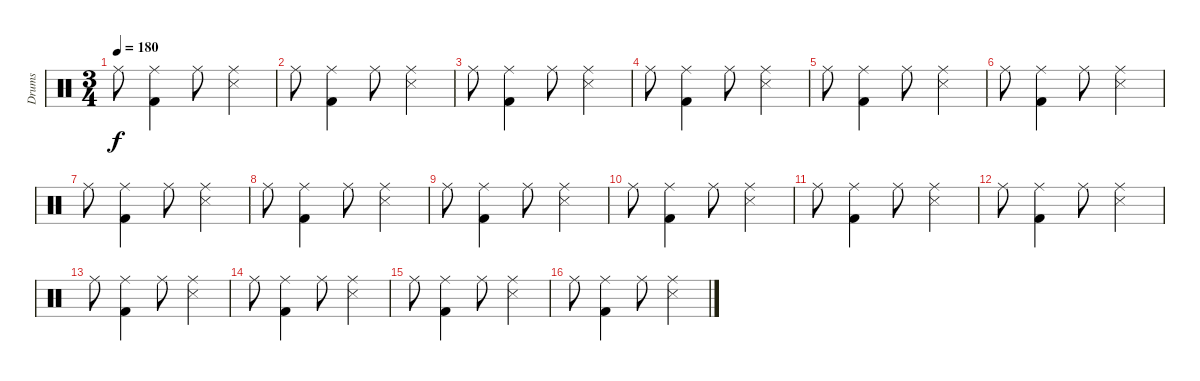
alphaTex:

\track ("Drums" "Drums") {instrument percussion}
\staff {score}
\articulation defaults
\ts (3 4)
\tempo 180
\clef neutral
\ks c "Ride (middle)".8{dy f}
("Ride (middle)" "Kick (hit) 2").4 "Ride (middle)".8 ("Ride (middle)" "Snare (side stick) 3").4 |
"Ride (middle)".8 ("Ride (middle)" "Kick (hit) 2").4 "Ride (middle)".8 ("Ride (middle)" "Snare (side stick) 3").4 |
"Ride (middle)".8 ("Ride (middle)" "Kick (hit) 2").4 "Ride (middle)".8 ("Ride (middle)" "Snare (side stick) 3").4 |
"Ride (middle)".8 ("Ride (middle)" "Kick (hit) 2").4 "Ride (middle)".8 ("Ride (middle)" "Snare (side stick) 3").4 |
"Ride (middle)".8 ("Ride (middle)" "Kick (hit) 2").4 "Ride (middle)".8 ("Ride (middle)" "Snare (side stick) 3").4 |
"Ride (middle)".8 ("Ride (middle)" "Kick (hit) 2").4 "Ride (middle)".8 ("Ride (middle)" "Snare (side stick) 3").4 |
"Ride (middle)".8 ("Ride (middle)" "Kick (hit) 2").4 "Ride (middle)".8 ("Ride (middle)" "Snare (side stick) 3").4 |
"Ride (middle)".8 ("Ride (middle)" "Kick (hit) 2").4 "Ride (middle)".8 ("Ride (middle)" "Snare (side stick) 3").4 |
"Ride (middle)".8 ("Ride (middle)" "Kick (hit) 2").4 "Ride (middle)".8 ("Ride (middle)" "Snare (side stick) 3").4 |
"Ride (middle)".8 ("Ride (middle)" "Kick (hit) 2").4 "Ride (middle)".8 ("Ride (middle)" "Snare (side stick) 3").4 |
"Ride (middle)".8 ("Ride (middle)" "Kick (hit) 2").4 "Ride (middle)".8 ("Ride (middle)" "Snare (side stick) 3").4 |
"Ride (middle)".8 ("Ride (middle)" "Kick (hit) 2").4 "Ride (middle)".8 ("Ride (middle)" "Snare (side stick) 3").4 |
"Ride (middle)".8 ("Ride (middle)" "Kick (hit) 2").4 "Ride (middle)".8 ("Ride (middle)" "Snare (side stick) 3").4 |
"Ride (middle)".8 ("Ride (middle)" "Kick (hit) 2").4 "Ride (middle)".8 ("Ride (middle)" "Snare (side stick) 3").4 |
"Ride (middle)".8 ("Ride (middle)" "Kick (hit) 2").4 "Ride (middle)".8 ("Ride (middle)" "Snare (side stick) 3").4 |
"Ride (middle)".8 ("Ride (middle)" "Kick (hit) 2").4 "Ride (middle)".8 ("Ride (middle)" "Snare (side stick) 3").4
